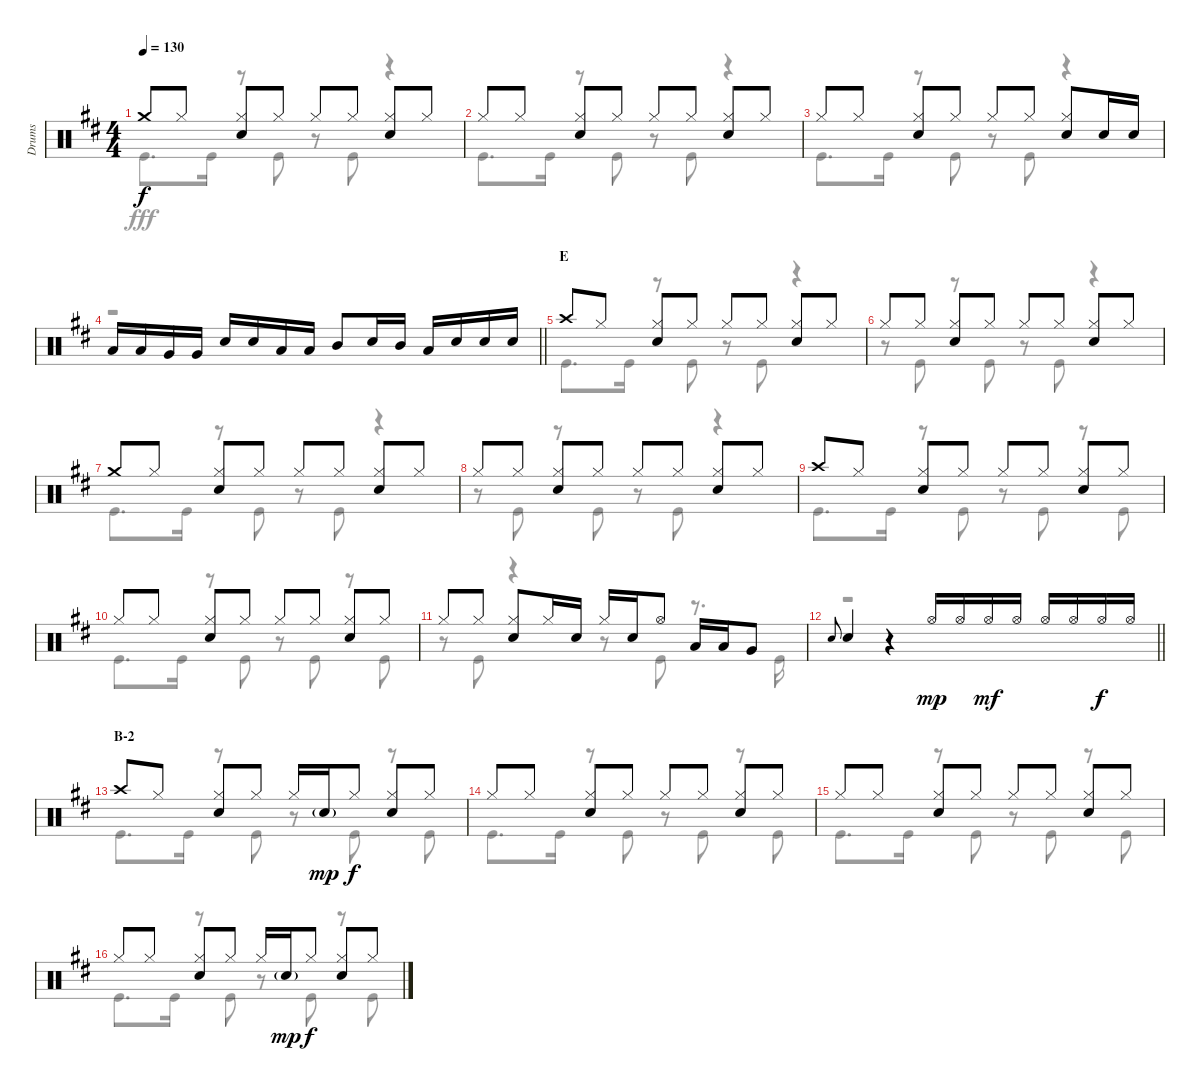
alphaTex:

\track ("Drums" "Drums") {instrument percussion}
\staff {score}
\articulation defaults
\voice
\ts (4 4)
\tempo 130
\clef neutral
\ks d "Crash medium (hit)".8{dy f} "Hi-Hat (closed)".8
("Hi-Hat (closed)" "Snare (hit) 2").8 "Hi-Hat (closed)".8 "Hi-Hat (closed)".8 "Hi-Hat (closed)".8 ("Hi-Hat (closed)" "Snare (hit) 2").8 "Hi-Hat (closed)".8 |
"Hi-Hat (closed)".8 "Hi-Hat (closed)".8 ("Hi-Hat (closed)" "Snare (hit) 2").8 "Hi-Hat (closed)".8 "Hi-Hat (closed)".8 "Hi-Hat (closed)".8 ("Hi-Hat (closed)" "Snare (hit) 2").8 "Hi-Hat (closed)".8 |
"Hi-Hat (closed)".8 "Hi-Hat (closed)".8 ("Hi-Hat (closed)" "Snare (hit) 2").8 "Hi-Hat (closed)".8 "Hi-Hat (closed)".8 "Hi-Hat (closed)".8 ("Hi-Hat (closed)" "Snare (hit) 2").8 "Snare (hit) 2".16 "Snare (hit) 2".16 |
\barLineRight lightlight "Low Tom (hit)".16 "Low Tom (hit)".16 "Very Low Tom (hit)".16 "Very Low Tom (hit)".16 "Snare (hit) 2".16 "Snare (hit) 2".16 "Low Tom (hit)".16 "Low Tom (hit)".16 "Mid Tom (hit)".8 "Snare (hit) 2".16 "Mid Tom (hit)".16 "Low Tom (hit)".16 "Snare (hit) 2".16 "Snare (hit) 2".16 "Snare (hit) 2".16
|
\section ("" "E")
"Crash high (hit)".8 "Hi-Hat (closed)".8 ("Hi-Hat (closed)" "Snare (hit) 2").8 "Hi-Hat (closed)".8 "Hi-Hat (closed)".8 "Hi-Hat (closed)".8 ("Hi-Hat (closed)" "Snare (hit) 2").8 "Hi-Hat (closed)".8 |
"Hi-Hat (closed)".8 "Hi-Hat (closed)".8 ("Hi-Hat (closed)" "Snare (hit) 2").8 "Hi-Hat (closed)".8 "Hi-Hat (closed)".8 "Hi-Hat (closed)".8 ("Hi-Hat (closed)" "Snare (hit) 2").8 "Hi-Hat (closed)".8 |
"Crash medium (hit)".8 "Hi-Hat (closed)".8 ("Hi-Hat (closed)" "Snare (hit) 2").8 "Hi-Hat (closed)".8 "Hi-Hat (closed)".8 "Hi-Hat (closed)".8 ("Hi-Hat (closed)" "Snare (hit) 2").8 "Hi-Hat (closed)".8 |
"Hi-Hat (closed)".8 "Hi-Hat (closed)".8 ("Hi-Hat (closed)" "Snare (hit) 2").8 "Hi-Hat (closed)".8 "Hi-Hat (closed)".8 "Hi-Hat (closed)".8 ("Hi-Hat (closed)" "Snare (hit) 2").8 "Hi-Hat (closed)".8 |
"Crash high (hit)".8 "Hi-Hat (closed)".8 ("Hi-Hat (closed)" "Snare (hit) 2").8 "Hi-Hat (closed)".8 "Hi-Hat (closed)".8 "Hi-Hat (closed)".8 ("Hi-Hat (closed)" "Snare (hit) 2").8 "Hi-Hat (closed)".8 |
"Hi-Hat (closed)".8 "Hi-Hat (closed)".8 ("Hi-Hat (closed)" "Snare (hit) 2").8 "Hi-Hat (closed)".8 "Hi-Hat (closed)".8 "Hi-Hat (closed)".8 ("Hi-Hat (closed)" "Snare (hit) 2").8 "Hi-Hat (closed)".8 |
"Hi-Hat (closed)".8 "Hi-Hat (closed)".8 ("Hi-Hat (closed)" "Snare (hit) 2").8 "Hi-Hat (closed)".16 "Snare (hit) 2".16 "Hi-Hat (closed)".16 "Snare (hit) 2".16 "Hi-Hat (open)".8 "Low Tom (hit)".16 "Low Tom (hit)".16 "Very Low Tom (hit)".8 |
\barLineRight lightlight "Snare (hit) 2".8{gr onbeat} "Snare (hit) 2".4
r.4 "Hi-Hat (open)".16{dy mp} "Hi-Hat (open)".16 "Hi-Hat (open)".16{dy mf} "Hi-Hat (open)".16 "Hi-Hat (open)".16 "Hi-Hat (open)".16 "Hi-Hat (open)".16{dy f} "Hi-Hat (open)".16 |
\section ("" "B-2")
"Crash high (hit)".8 "Hi-Hat (closed)".8 ("Hi-Hat (closed)" "Snare (hit) 2").8 "Hi-Hat (closed)".8 "Hi-Hat (closed)".16 "Snare (hit) 2"{g}.16{dy mp} "Hi-Hat (closed)".8{dy f} ("Hi-Hat (closed)" "Snare (hit) 2").8 "Hi-Hat (closed)".8 |
"Hi-Hat (closed)".8 "Hi-Hat (closed)".8 ("Hi-Hat (closed)" "Snare (hit) 2").8 "Hi-Hat (closed)".8 "Hi-Hat (closed)".8 "Hi-Hat (closed)".8 ("Hi-Hat (closed)" "Snare (hit) 2").8 "Hi-Hat (closed)".8 |
"Hi-Hat (closed)".8 "Hi-Hat (closed)".8 ("Hi-Hat (closed)" "Snare (hit) 2").8 "Hi-Hat (closed)".8 "Hi-Hat (closed)".8 "Hi-Hat (closed)".8 ("Hi-Hat (closed)" "Snare (hit) 2").8 "Hi-Hat (closed)".8 |
"Hi-Hat (closed)".8 "Hi-Hat (closed)".8 ("Hi-Hat (closed)" "Snare (hit) 2").8 "Hi-Hat (closed)".8 "Hi-Hat (closed)".16 "Snare (hit) 2"{g}.16{dy mp} "Hi-Hat (closed)".8{dy f} ("Hi-Hat (closed)" "Snare (hit) 2").8 "Hi-Hat (closed)".8
\voice
\clef neutral
\ottava regular
\simile none
\ks d "Kick (hit)".8{d dy fff} "Kick (hit)".16
r.8 "Kick (hit)".8 r.8 "Kick (hit)".8 r.4 |
"Kick (hit)".8{d} "Kick (hit)".16 r.8 "Kick (hit)".8 r.8 "Kick (hit)".8 r.4 |
"Kick (hit)".8{d} "Kick (hit)".16 r.8 "Kick (hit)".8 r.8 "Kick (hit)".8 r.4 |
\barLineRight lightlight
r.1 |
"Kick (hit)".8{d} "Kick (hit)".16 r.8 "Kick (hit)".8 r.8 "Kick (hit)".8 r.4 |
r.8 "Kick (hit)".8 r.8 "Kick (hit)".8 r.8 "Kick (hit)".8 r.4 |
"Kick (hit)".8{d} "Kick (hit)".16 r.8 "Kick (hit)".8 r.8 "Kick (hit)".8 r.4 |
r.8 "Kick (hit)".8 r.8 "Kick (hit)".8 r.8 "Kick (hit)".8 r.4 |
"Kick (hit)".8{d} "Kick (hit)".16 r.8 "Kick (hit)".8 r.8 "Kick (hit)".8 r.8 "Kick (hit)".8 |
"Kick (hit)".8{d} "Kick (hit)".16 r.8 "Kick (hit)".8 r.8 "Kick (hit)".8 r.8 "Kick (hit)".8 |
r.8 "Kick (hit)".8 r.4 r.8 "Kick (hit)".8 r.8{d} "Kick (hit)".16 |
\barLineRight lightlight
r.1 |
"Kick (hit)".8{d} "Kick (hit)".16 r.8 "Kick (hit)".8 r.8 "Kick (hit)".8 r.8 "Kick (hit)".8 |
"Kick (hit)".8{d} "Kick (hit)".16 r.8 "Kick (hit)".8 r.8 "Kick (hit)".8 r.8 "Kick (hit)".8 |
"Kick (hit)".8{d} "Kick (hit)".16 r.8 "Kick (hit)".8 r.8 "Kick (hit)".8 r.8 "Kick (hit)".8 |
"Kick (hit)".8{d} "Kick (hit)".16 r.8 "Kick (hit)".8 r.8 "Kick (hit)".8 r.8 "Kick (hit)".8
